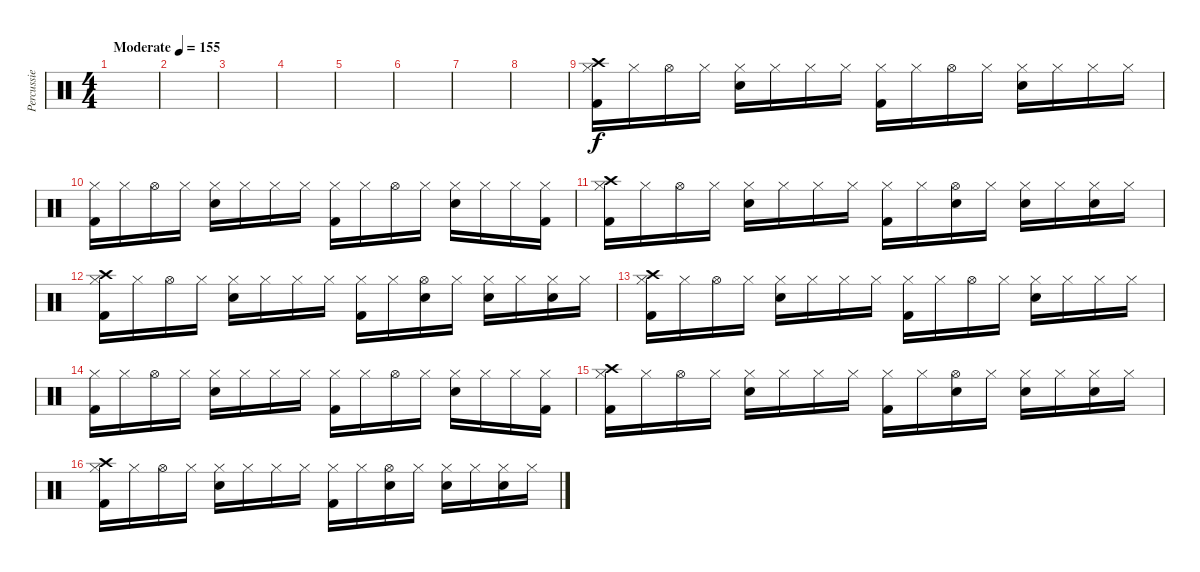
\track ("Percussie" "Percussie") {instrument percussion}
\staff {score}
\articulation defaults
\ts (4 4)
\tempo (155 "Moderate")
\clef neutral
\ks c
|
|
|
|
|
|
|
|
("Kick (hit) 2" "Hi-Hat (closed)" "Crash high (hit)").16 "Hi-Hat (closed)".16 "Hi-Hat (open)".16 "Hi-Hat (closed)".16 ("Electric Snare (hit)" "Hi-Hat (closed)").16 "Hi-Hat (closed)".16 "Hi-Hat (closed)".16 "Hi-Hat (closed)".16 ("Kick (hit) 2" "Hi-Hat (closed)").16 "Hi-Hat (closed)".16 "Hi-Hat (open)".16 "Hi-Hat (closed)".16 ("Electric Snare (hit)" "Hi-Hat (closed)").16 "Hi-Hat (closed)".16 "Hi-Hat (closed)".16 "Hi-Hat (closed)".16 |
("Kick (hit) 2" "Hi-Hat (closed)").16 "Hi-Hat (closed)".16 "Hi-Hat (open)".16 "Hi-Hat (closed)".16 ("Electric Snare (hit)" "Hi-Hat (closed)").16 "Hi-Hat (closed)".16 "Hi-Hat (closed)".16 "Hi-Hat (closed)".16 ("Kick (hit) 2" "Hi-Hat (closed)").16 "Hi-Hat (closed)".16 "Hi-Hat (open)".16 "Hi-Hat (closed)".16 ("Electric Snare (hit)" "Hi-Hat (closed)").16 "Hi-Hat (closed)".16 "Hi-Hat (closed)".16 ("Kick (hit) 2" "Hi-Hat (closed)").16 |
("Kick (hit) 2" "Hi-Hat (closed)" "Crash high (hit)").16 "Hi-Hat (closed)".16 "Hi-Hat (open)".16 "Hi-Hat (closed)".16 ("Electric Snare (hit)" "Hi-Hat (closed)").16 "Hi-Hat (closed)".16 "Hi-Hat (closed)".16 "Hi-Hat (closed)".16 ("Kick (hit) 2" "Hi-Hat (closed)").16 "Hi-Hat (closed)".16 ("Electric Snare (hit)" "Hi-Hat (open)").16 "Hi-Hat (closed)".16 ("Electric Snare (hit)" "Hi-Hat (closed)").16 "Hi-Hat (closed)".16 ("Electric Snare (hit)" "Hi-Hat (closed)").16 "Hi-Hat (closed)".16 |
("Kick (hit) 2" "Hi-Hat (closed)" "Crash high (hit)").16 "Hi-Hat (closed)".16 "Hi-Hat (open)".16 "Hi-Hat (closed)".16 ("Electric Snare (hit)" "Hi-Hat (closed)").16 "Hi-Hat (closed)".16 "Hi-Hat (closed)".16 "Hi-Hat (closed)".16 ("Kick (hit) 2" "Hi-Hat (closed)").16 "Hi-Hat (closed)".16 ("Electric Snare (hit)" "Hi-Hat (open)").16 "Hi-Hat (closed)".16 ("Electric Snare (hit)" "Hi-Hat (closed)").16 "Hi-Hat (closed)".16 ("Electric Snare (hit)" "Hi-Hat (closed)").16 "Hi-Hat (closed)".16 |
("Kick (hit) 2" "Hi-Hat (closed)" "Crash high (hit)").16 "Hi-Hat (closed)".16 "Hi-Hat (open)".16 "Hi-Hat (closed)".16 ("Electric Snare (hit)" "Hi-Hat (closed)").16 "Hi-Hat (closed)".16 "Hi-Hat (closed)".16 "Hi-Hat (closed)".16 ("Kick (hit) 2" "Hi-Hat (closed)").16 "Hi-Hat (closed)".16 "Hi-Hat (open)".16 "Hi-Hat (closed)".16 ("Electric Snare (hit)" "Hi-Hat (closed)").16 "Hi-Hat (closed)".16 "Hi-Hat (closed)".16 "Hi-Hat (closed)".16 |
("Kick (hit) 2" "Hi-Hat (closed)").16 "Hi-Hat (closed)".16 "Hi-Hat (open)".16 "Hi-Hat (closed)".16 ("Electric Snare (hit)" "Hi-Hat (closed)").16 "Hi-Hat (closed)".16 "Hi-Hat (closed)".16 "Hi-Hat (closed)".16 ("Kick (hit) 2" "Hi-Hat (closed)").16 "Hi-Hat (closed)".16 "Hi-Hat (open)".16 "Hi-Hat (closed)".16 ("Electric Snare (hit)" "Hi-Hat (closed)").16 "Hi-Hat (closed)".16 "Hi-Hat (closed)".16 ("Kick (hit) 2" "Hi-Hat (closed)").16 |
("Kick (hit) 2" "Hi-Hat (closed)" "Crash high (hit)").16 "Hi-Hat (closed)".16 "Hi-Hat (open)".16 "Hi-Hat (closed)".16 ("Electric Snare (hit)" "Hi-Hat (closed)").16 "Hi-Hat (closed)".16 "Hi-Hat (closed)".16 "Hi-Hat (closed)".16 ("Kick (hit) 2" "Hi-Hat (closed)").16 "Hi-Hat (closed)".16 ("Electric Snare (hit)" "Hi-Hat (open)").16 "Hi-Hat (closed)".16 ("Electric Snare (hit)" "Hi-Hat (closed)").16 "Hi-Hat (closed)".16 ("Electric Snare (hit)" "Hi-Hat (closed)").16 "Hi-Hat (closed)".16 |
("Kick (hit) 2" "Hi-Hat (closed)" "Crash high (hit)").16 "Hi-Hat (closed)".16 "Hi-Hat (open)".16 "Hi-Hat (closed)".16 ("Electric Snare (hit)" "Hi-Hat (closed)").16 "Hi-Hat (closed)".16 "Hi-Hat (closed)".16 "Hi-Hat (closed)".16 ("Kick (hit) 2" "Hi-Hat (closed)").16 "Hi-Hat (closed)".16 ("Electric Snare (hit)" "Hi-Hat (open)").16 "Hi-Hat (closed)".16 ("Electric Snare (hit)" "Hi-Hat (closed)").16 "Hi-Hat (closed)".16 ("Electric Snare (hit)" "Hi-Hat (closed)").16 "Hi-Hat (closed)".16
